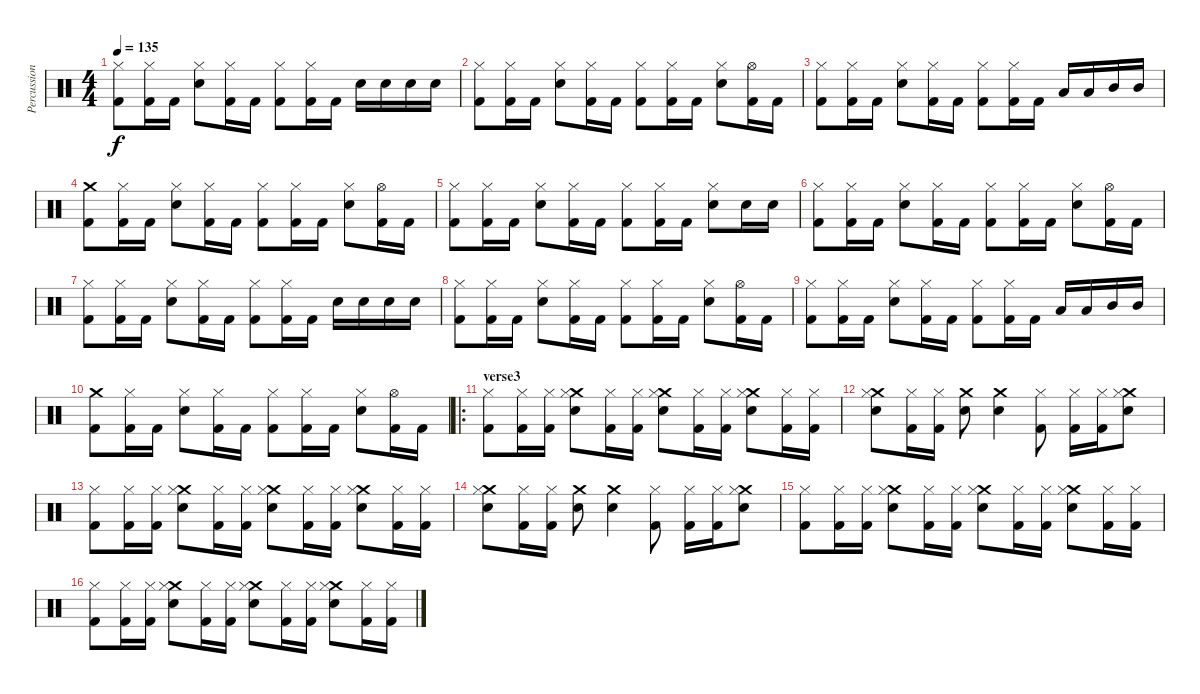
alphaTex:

\track ("Percussions" "Percussion") {instrument percussion}
\staff {score}
\articulation defaults
\ts (4 4)
\tempo 135
\clef neutral
\ks c
("Hi-Hat (closed)" "Kick (hit) 2").8{dy f} ("Hi-Hat (closed)" "Kick (hit) 2").16 "Kick (hit) 2".16 ("Hi-Hat (closed)" "Snare (hit) 2").8 ("Hi-Hat (closed)" "Kick (hit) 2").16 "Kick (hit) 2".16 ("Hi-Hat (closed)" "Kick (hit) 2").8 ("Hi-Hat (closed)" "Kick (hit) 2").16 "Kick (hit) 2".16 "Snare (hit) 2".16 "Snare (hit) 2".16 "Snare (hit) 2".16 "Snare (hit) 2".16 |
("Hi-Hat (closed)" "Kick (hit) 2").8 ("Hi-Hat (closed)" "Kick (hit) 2").16 "Kick (hit) 2".16 ("Hi-Hat (closed)" "Snare (hit) 2").8 ("Hi-Hat (closed)" "Kick (hit) 2").16 "Kick (hit) 2".16 ("Hi-Hat (closed)" "Kick (hit) 2").8 ("Hi-Hat (closed)" "Kick (hit) 2").16 "Kick (hit) 2".16 ("Hi-Hat (closed)" "Snare (hit) 2").8 ("Hi-Hat (open)" "Kick (hit) 2").16 "Kick (hit) 2".16 |
("Hi-Hat (closed)" "Kick (hit) 2").8 ("Hi-Hat (closed)" "Kick (hit) 2").16 "Kick (hit) 2".16 ("Hi-Hat (closed)" "Snare (hit) 2").8 ("Hi-Hat (closed)" "Kick (hit) 2").16 "Kick (hit) 2".16 ("Hi-Hat (closed)" "Kick (hit) 2").8 ("Hi-Hat (closed)" "Kick (hit) 2").16 "Kick (hit) 2".16 "Low Tom (hit)".16 "Low Tom (hit)".16 "Mid Tom (hit)".16 "Mid Tom (hit)".16 |
("Crash medium (hit)" "Kick (hit) 2").8 ("Hi-Hat (closed)" "Kick (hit) 2").16 "Kick (hit) 2".16 ("Hi-Hat (closed)" "Snare (hit) 2").8 ("Hi-Hat (closed)" "Kick (hit) 2").16 "Kick (hit) 2".16 ("Hi-Hat (closed)" "Kick (hit) 2").8 ("Hi-Hat (closed)" "Kick (hit) 2").16 "Kick (hit) 2".16 ("Hi-Hat (closed)" "Snare (hit) 2").8 ("Hi-Hat (open)" "Kick (hit) 2").16 "Kick (hit) 2".16 |
("Hi-Hat (closed)" "Kick (hit) 2").8 ("Hi-Hat (closed)" "Kick (hit) 2").16 "Kick (hit) 2".16 ("Hi-Hat (closed)" "Snare (hit) 2").8 ("Hi-Hat (closed)" "Kick (hit) 2").16 "Kick (hit) 2".16 ("Hi-Hat (closed)" "Kick (hit) 2").8 ("Hi-Hat (closed)" "Kick (hit) 2").16 "Kick (hit) 2".16 ("Hi-Hat (closed)" "Snare (hit) 2").8 "Snare (hit) 2".16 "Snare (hit) 2".16 |
("Hi-Hat (closed)" "Kick (hit) 2").8 ("Hi-Hat (closed)" "Kick (hit) 2").16 "Kick (hit) 2".16 ("Hi-Hat (closed)" "Snare (hit) 2").8 ("Hi-Hat (closed)" "Kick (hit) 2").16 "Kick (hit) 2".16 ("Hi-Hat (closed)" "Kick (hit) 2").8 ("Hi-Hat (closed)" "Kick (hit) 2").16 "Kick (hit) 2".16 ("Hi-Hat (closed)" "Snare (hit) 2").8 ("Hi-Hat (open)" "Kick (hit) 2").16 "Kick (hit) 2".16 |
("Hi-Hat (closed)" "Kick (hit) 2").8 ("Hi-Hat (closed)" "Kick (hit) 2").16 "Kick (hit) 2".16 ("Hi-Hat (closed)" "Snare (hit) 2").8 ("Hi-Hat (closed)" "Kick (hit) 2").16 "Kick (hit) 2".16 ("Hi-Hat (closed)" "Kick (hit) 2").8 ("Hi-Hat (closed)" "Kick (hit) 2").16 "Kick (hit) 2".16 "Snare (hit) 2".16 "Snare (hit) 2".16 "Snare (hit) 2".16 "Snare (hit) 2".16 |
("Hi-Hat (closed)" "Kick (hit) 2").8 ("Hi-Hat (closed)" "Kick (hit) 2").16 "Kick (hit) 2".16 ("Hi-Hat (closed)" "Snare (hit) 2").8 ("Hi-Hat (closed)" "Kick (hit) 2").16 "Kick (hit) 2".16 ("Hi-Hat (closed)" "Kick (hit) 2").8 ("Hi-Hat (closed)" "Kick (hit) 2").16 "Kick (hit) 2".16 ("Hi-Hat (closed)" "Snare (hit) 2").8 ("Hi-Hat (open)" "Kick (hit) 2").16 "Kick (hit) 2".16 |
("Hi-Hat (closed)" "Kick (hit) 2").8 ("Hi-Hat (closed)" "Kick (hit) 2").16 "Kick (hit) 2".16 ("Hi-Hat (closed)" "Snare (hit) 2").8 ("Hi-Hat (closed)" "Kick (hit) 2").16 "Kick (hit) 2".16 ("Hi-Hat (closed)" "Kick (hit) 2").8 ("Hi-Hat (closed)" "Kick (hit) 2").16 "Kick (hit) 2".16 "Low Tom (hit)".16 "Low Tom (hit)".16 "Mid Tom (hit)".16 "Mid Tom (hit)".16 |
("Crash medium (hit)" "Kick (hit) 2").8 ("Hi-Hat (closed)" "Kick (hit) 2").16 "Kick (hit) 2".16 ("Hi-Hat (closed)" "Snare (hit) 2").8 ("Hi-Hat (closed)" "Kick (hit) 2").16 "Kick (hit) 2".16 ("Hi-Hat (closed)" "Kick (hit) 2").8 ("Hi-Hat (closed)" "Kick (hit) 2").16 "Kick (hit) 2".16 ("Hi-Hat (closed)" "Snare (hit) 2").8 ("Hi-Hat (open)" "Kick (hit) 2").16 "Kick (hit) 2".16 |
\ro
\section ("" "verse3")
("Hi-Hat (closed)" "Kick (hit) 2").8 ("Hi-Hat (closed)" "Kick (hit) 2").16 ("Hi-Hat (closed)" "Kick (hit) 2").16 ("Crash medium (hit)" "Electric Snare (hit)" "Hi-Hat (closed)").8 ("Hi-Hat (closed)" "Kick (hit) 2").16 ("Hi-Hat (closed)" "Kick (hit) 2").16 ("Crash medium (hit)" "Electric Snare (hit)" "Hi-Hat (closed)").8 ("Hi-Hat (closed)" "Kick (hit) 2").16 ("Hi-Hat (closed)" "Kick (hit) 2").16 ("Crash medium (hit)" "Electric Snare (hit)" "Hi-Hat (closed)").8 ("Hi-Hat (closed)" "Kick (hit) 2").16 ("Hi-Hat (closed)" "Kick (hit) 2").16 |
("Crash medium (hit)" "Hi-Hat (closed)" "Electric Snare (hit)").8 ("Hi-Hat (closed)" "Kick (hit) 2").16 ("Hi-Hat (closed)" "Kick (hit) 2").16 ("Crash medium (hit)" "Electric Snare (hit)").8 ("Crash medium (hit)" "Electric Snare (hit)").4 ("Hi-Hat (closed)" "Kick (hit) 2").8 ("Hi-Hat (closed)" "Kick (hit) 2").16 ("Hi-Hat (closed)" "Kick (hit) 2").16 ("Crash medium (hit)" "Hi-Hat (closed)" "Electric Snare (hit)").8 |
("Hi-Hat (closed)" "Kick (hit) 2").8 ("Hi-Hat (closed)" "Kick (hit) 2").16 ("Hi-Hat (closed)" "Kick (hit) 2").16 ("Crash medium (hit)" "Electric Snare (hit)" "Hi-Hat (closed)").8 ("Hi-Hat (closed)" "Kick (hit) 2").16 ("Hi-Hat (closed)" "Kick (hit) 2").16 ("Crash medium (hit)" "Electric Snare (hit)" "Hi-Hat (closed)").8 ("Hi-Hat (closed)" "Kick (hit) 2").16 ("Hi-Hat (closed)" "Kick (hit) 2").16 ("Crash medium (hit)" "Electric Snare (hit)" "Hi-Hat (closed)").8 ("Hi-Hat (closed)" "Kick (hit) 2").16 ("Hi-Hat (closed)" "Kick (hit) 2").16 |
("Crash medium (hit)" "Hi-Hat (closed)" "Electric Snare (hit)").8 ("Hi-Hat (closed)" "Kick (hit) 2").16 ("Hi-Hat (closed)" "Kick (hit) 2").16 ("Crash medium (hit)" "Electric Snare (hit)").8 ("Crash medium (hit)" "Electric Snare (hit)").4 ("Hi-Hat (closed)" "Kick (hit) 2").8 ("Hi-Hat (closed)" "Kick (hit) 2").16 ("Hi-Hat (closed)" "Kick (hit) 2").16 ("Crash medium (hit)" "Hi-Hat (closed)" "Electric Snare (hit)").8 |
("Hi-Hat (closed)" "Kick (hit) 2").8 ("Hi-Hat (closed)" "Kick (hit) 2").16 ("Hi-Hat (closed)" "Kick (hit) 2").16 ("Crash medium (hit)" "Electric Snare (hit)" "Hi-Hat (closed)").8 ("Hi-Hat (closed)" "Kick (hit) 2").16 ("Hi-Hat (closed)" "Kick (hit) 2").16 ("Crash medium (hit)" "Electric Snare (hit)" "Hi-Hat (closed)").8 ("Hi-Hat (closed)" "Kick (hit) 2").16 ("Hi-Hat (closed)" "Kick (hit) 2").16 ("Crash medium (hit)" "Electric Snare (hit)" "Hi-Hat (closed)").8 ("Hi-Hat (closed)" "Kick (hit) 2").16 ("Hi-Hat (closed)" "Kick (hit) 2").16 |
("Hi-Hat (closed)" "Kick (hit) 2").8 ("Hi-Hat (closed)" "Kick (hit) 2").16 ("Hi-Hat (closed)" "Kick (hit) 2").16 ("Crash medium (hit)" "Electric Snare (hit)" "Hi-Hat (closed)").8 ("Hi-Hat (closed)" "Kick (hit) 2").16 ("Hi-Hat (closed)" "Kick (hit) 2").16 ("Crash medium (hit)" "Electric Snare (hit)" "Hi-Hat (closed)").8 ("Hi-Hat (closed)" "Kick (hit) 2").16 ("Hi-Hat (closed)" "Kick (hit) 2").16 ("Crash medium (hit)" "Electric Snare (hit)" "Hi-Hat (closed)").8 ("Hi-Hat (closed)" "Kick (hit) 2").16 ("Hi-Hat (closed)" "Kick (hit) 2").16
